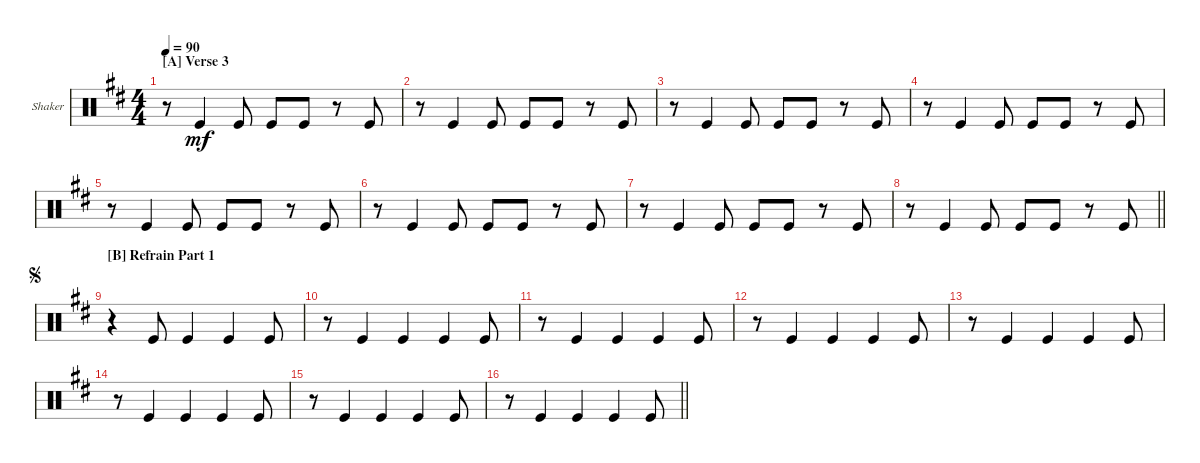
\defaultSystemsLayout 4
\bracketExtendMode groupsimilarinstruments
\firstSystemTrackNameOrientation horizontal
\otherSystemsTrackNameOrientation horizontal
\track ("Shaker" "Shaker") {instrument percussion}
\staff {score}
\articulation defaults
\ts (4 4)
\section ("A" "Verse 3")
\tempo 90
\clef neutral
\scale
0.25
\ks d
r.8{dy mf} "Kick (hit)".4 "Kick (hit)".8 "Kick (hit)".8 "Kick (hit)".8 r.8 "Kick (hit)".8 |
\scale
0.25 r.8 "Kick (hit)".4 "Kick (hit)".8 "Kick (hit)".8 "Kick (hit)".8 r.8 "Kick (hit)".8 |
\scale
0.25 r.8 "Kick (hit)".4 "Kick (hit)".8 "Kick (hit)".8 "Kick (hit)".8 r.8 "Kick (hit)".8 |
\scale
0.25 r.8 "Kick (hit)".4 "Kick (hit)".8 "Kick (hit)".8 "Kick (hit)".8 r.8 "Kick (hit)".8 |
\scale
0.25 r.8 "Kick (hit)".4 "Kick (hit)".8 "Kick (hit)".8 "Kick (hit)".8 r.8 "Kick (hit)".8 |
\scale
0.25 r.8 "Kick (hit)".4 "Kick (hit)".8 "Kick (hit)".8 "Kick (hit)".8 r.8 "Kick (hit)".8 |
\scale
0.25 r.8 "Kick (hit)".4 "Kick (hit)".8 "Kick (hit)".8 "Kick (hit)".8 r.8 "Kick (hit)".8 |
\scale
0.25
\barLineRight lightlight
r.8 "Kick (hit)".4 "Kick (hit)".8 "Kick (hit)".8 "Kick (hit)".8 r.8 "Kick (hit)".8 |
\section ("B" "Refrain Part 1")
\jump segno
\scale
0.25 r.4 "Kick (hit)".8 "Kick (hit)".4 "Kick (hit)".4 "Kick (hit)".8 |
\scale
0.25 r.8 "Kick (hit)".4 "Kick (hit)".4 "Kick (hit)".4 "Kick (hit)".8 |
\scale
0.25 r.8 "Kick (hit)".4 "Kick (hit)".4 "Kick (hit)".4 "Kick (hit)".8 |
\scale
0.25 r.8 "Kick (hit)".4 "Kick (hit)".4 "Kick (hit)".4 "Kick (hit)".8 |
\scale
0.25 r.8 "Kick (hit)".4 "Kick (hit)".4 "Kick (hit)".4 "Kick (hit)".8 |
\scale
0.25 r.8 "Kick (hit)".4 "Kick (hit)".4 "Kick (hit)".4 "Kick (hit)".8 |
\scale
0.25 r.8 "Kick (hit)".4 "Kick (hit)".4 "Kick (hit)".4 "Kick (hit)".8 |
\scale
0.25
\barLineRight lightlight
r.8 "Kick (hit)".4 "Kick (hit)".4 "Kick (hit)".4 "Kick (hit)".8
